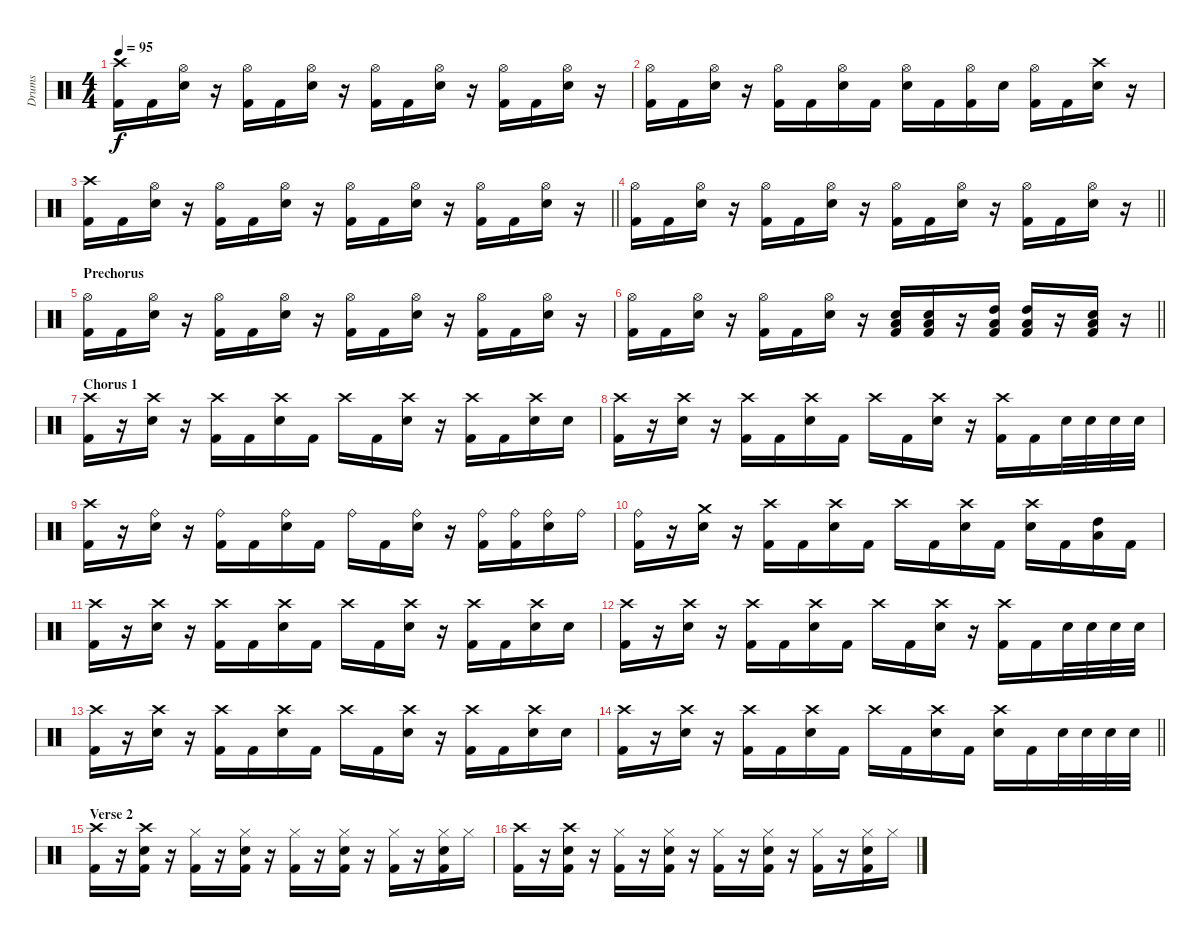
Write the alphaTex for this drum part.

\track ("Drums" "Drums") {instrument percussion}
\staff {score}
\articulation defaults
\ts (4 4)
\tempo 95
\clef neutral
\ks c
("Crash high (hit)" "Kick (hit) 2").16{dy f} "Kick (hit) 2".16 ("Hi-Hat (open)" "Electric Snare (hit)").16 r.16 ("Hi-Hat (open)" "Kick (hit) 2").16 "Kick (hit) 2".16 ("Hi-Hat (open)" "Electric Snare (hit)").16 r.16 ("Hi-Hat (open)" "Kick (hit) 2").16 "Kick (hit) 2".16 ("Hi-Hat (open)" "Electric Snare (hit)").16 r.16 ("Hi-Hat (open)" "Kick (hit) 2").16 "Kick (hit) 2".16 ("Hi-Hat (open)" "Electric Snare (hit)").16 r.16 |
("Hi-Hat (open)" "Kick (hit) 2").16 "Kick (hit) 2".16 ("Hi-Hat (open)" "Electric Snare (hit)").16 r.16 ("Hi-Hat (open)" "Kick (hit) 2").16 "Kick (hit) 2".16 ("Hi-Hat (open)" "Electric Snare (hit)").16 "Kick (hit) 2".16 ("Hi-Hat (open)" "Electric Snare (hit)").16 "Kick (hit) 2".16 ("Hi-Hat (open)" "Kick (hit) 2").16 "Electric Snare (hit)".16 ("Hi-Hat (open)" "Kick (hit) 2").16 "Kick (hit) 2".16 ("Crash high (hit)" "Electric Snare (hit)").16 r.16 |
\barLineRight lightlight
("Crash high (hit)" "Kick (hit) 2").16 "Kick (hit) 2".16 ("Hi-Hat (open)" "Electric Snare (hit)").16 r.16 ("Hi-Hat (open)" "Kick (hit) 2").16 "Kick (hit) 2".16 ("Hi-Hat (open)" "Electric Snare (hit)").16 r.16 ("Hi-Hat (open)" "Kick (hit) 2").16 "Kick (hit) 2".16 ("Hi-Hat (open)" "Electric Snare (hit)").16 r.16 ("Hi-Hat (open)" "Kick (hit) 2").16 "Kick (hit) 2".16 ("Hi-Hat (open)" "Electric Snare (hit)").16 r.16 |
\barLineRight lightlight
("Hi-Hat (open)" "Kick (hit) 2").16 "Kick (hit) 2".16 ("Hi-Hat (open)" "Electric Snare (hit)").16 r.16 ("Hi-Hat (open)" "Kick (hit) 2").16 "Kick (hit) 2".16 ("Hi-Hat (open)" "Electric Snare (hit)").16 r.16 ("Hi-Hat (open)" "Kick (hit) 2").16 "Kick (hit) 2".16 ("Hi-Hat (open)" "Electric Snare (hit)").16 r.16 ("Hi-Hat (open)" "Kick (hit) 2").16 "Kick (hit) 2".16 ("Hi-Hat (open)" "Electric Snare (hit)").16 r.16 |
\section ("" "Prechorus")
("Hi-Hat (open)" "Kick (hit) 2").16 "Kick (hit) 2".16 ("Hi-Hat (open)" "Electric Snare (hit)").16 r.16 ("Hi-Hat (open)" "Kick (hit) 2").16 "Kick (hit) 2".16 ("Hi-Hat (open)" "Electric Snare (hit)").16 r.16 ("Hi-Hat (open)" "Kick (hit) 2").16 "Kick (hit) 2".16 ("Hi-Hat (open)" "Electric Snare (hit)").16 r.16 ("Hi-Hat (open)" "Kick (hit) 2").16 "Kick (hit) 2".16 ("Hi-Hat (open)" "Electric Snare (hit)").16 r.16 |
\barLineRight lightlight
("Hi-Hat (open)" "Kick (hit) 2").16 "Kick (hit) 2".16 ("Hi-Hat (open)" "Electric Snare (hit)").16 r.16 ("Hi-Hat (open)" "Kick (hit) 2").16 "Kick (hit) 2".16 ("Hi-Hat (open)" "Electric Snare (hit)").16 r.16 ("Electric Snare (hit)" "Low Tom (hit)" "Kick (hit) 2").16 ("Electric Snare (hit)" "Low Tom (hit)" "Kick (hit) 2").16 r.16 ("High Tom (hit)" "Low Tom (hit)" "Kick (hit) 2").16 ("High Tom (hit)" "Low Tom (hit)" "Kick (hit) 2").16 r.16 ("Electric Snare (hit)" "Low Tom (hit)" "Kick (hit) 2").16 r.16 |
\section ("" "Chorus 1")
("Crash high (hit)" "Kick (hit) 2").16 r.16 ("Crash high (hit)" "Electric Snare (hit)").16 r.16 ("Crash high (hit)" "Kick (hit) 2").16 "Kick (hit) 2".16 ("Crash high (hit)" "Electric Snare (hit)").16 "Kick (hit) 2".16 "Crash high (hit)".16 "Kick (hit) 2".16 ("Crash high (hit)" "Electric Snare (hit)").16 r.16 ("Crash high (hit)" "Kick (hit) 2").16 "Kick (hit) 2".16 ("Crash high (hit)" "Electric Snare (hit)").16 "Electric Snare (hit)".16 |
("Crash high (hit)" "Kick (hit) 2").16 r.16 ("Crash high (hit)" "Electric Snare (hit)").16 r.16 ("Crash high (hit)" "Kick (hit) 2").16 "Kick (hit) 2".16 ("Crash high (hit)" "Electric Snare (hit)").16 "Kick (hit) 2".16 "Crash high (hit)".16 "Kick (hit) 2".16 ("Crash high (hit)" "Electric Snare (hit)").16 r.16 ("Crash high (hit)" "Kick (hit) 2").16 "Kick (hit) 2".16 "Electric Snare (hit)".32 "Electric Snare (hit)".32 "Electric Snare (hit)".32 "Electric Snare (hit)".32 |
("Crash high (hit)" "Kick (hit) 2").16 r.16 ("Ride (bell)" "Electric Snare (hit)").16 r.16 ("Ride (bell)" "Kick (hit) 2").16 "Kick (hit) 2".16 ("Ride (bell)" "Electric Snare (hit)").16 "Kick (hit) 2".16 "Ride (bell)".16 "Kick (hit) 2".16 ("Ride (bell)" "Electric Snare (hit)").16 r.16 ("Ride (bell)" "Kick (hit) 2").16 ("Ride (bell)" "Kick (hit) 2").16 ("Ride (bell)" "Electric Snare (hit)").16 "Ride (bell)".16 |
("Ride (bell)" "Kick (hit) 2").16 r.16 ("Crash medium (hit)" "Electric Snare (hit)").16 r.16 ("Crash high (hit)" "Kick (hit) 2").16 "Kick (hit) 2".16 ("Crash high (hit)" "Electric Snare (hit)").16 "Kick (hit) 2".16 "Crash high (hit)".16 "Kick (hit) 2".16 ("Crash high (hit)" "Electric Snare (hit)").16 "Kick (hit) 2".16 ("Crash high (hit)" "Electric Snare (hit)").16 "Kick (hit) 2".16 ("Low Tom (hit)" "High Tom (hit)").16 "Kick (hit) 2".16 |
("Crash high (hit)" "Kick (hit) 2").16 r.16 ("Crash high (hit)" "Electric Snare (hit)").16 r.16 ("Crash high (hit)" "Kick (hit) 2").16 "Kick (hit) 2".16 ("Crash high (hit)" "Electric Snare (hit)").16 "Kick (hit) 2".16 "Crash high (hit)".16 "Kick (hit) 2".16 ("Crash high (hit)" "Electric Snare (hit)").16 r.16 ("Crash high (hit)" "Kick (hit) 2").16 "Kick (hit) 2".16 ("Crash high (hit)" "Electric Snare (hit)").16 "Electric Snare (hit)".16 |
("Crash high (hit)" "Kick (hit) 2").16 r.16 ("Crash high (hit)" "Electric Snare (hit)").16 r.16 ("Crash high (hit)" "Kick (hit) 2").16 "Kick (hit) 2".16 ("Crash high (hit)" "Electric Snare (hit)").16 "Kick (hit) 2".16 "Crash high (hit)".16 "Kick (hit) 2".16 ("Crash high (hit)" "Electric Snare (hit)").16 r.16 ("Crash high (hit)" "Kick (hit) 2").16 "Kick (hit) 2".16 "Electric Snare (hit)".32 "Electric Snare (hit)".32 "Electric Snare (hit)".32 "Electric Snare (hit)".32 |
("Crash high (hit)" "Kick (hit) 2").16 r.16 ("Crash high (hit)" "Electric Snare (hit)").16 r.16 ("Crash high (hit)" "Kick (hit) 2").16 "Kick (hit) 2".16 ("Crash high (hit)" "Electric Snare (hit)").16 "Kick (hit) 2".16 "Crash high (hit)".16 "Kick (hit) 2".16 ("Crash high (hit)" "Electric Snare (hit)").16 r.16 ("Crash high (hit)" "Kick (hit) 2").16 "Kick (hit) 2".16 ("Crash high (hit)" "Electric Snare (hit)").16 "Electric Snare (hit)".16 |
\barLineRight lightlight
("Crash high (hit)" "Kick (hit) 2").16 r.16 ("Crash high (hit)" "Electric Snare (hit)").16 r.16 ("Crash high (hit)" "Kick (hit) 2").16 "Kick (hit) 2".16 ("Crash high (hit)" "Electric Snare (hit)").16 "Kick (hit) 2".16 "Crash high (hit)".16 "Kick (hit) 2".16 ("Crash high (hit)" "Electric Snare (hit)").16 "Kick (hit) 2".16 ("Crash high (hit)" "Electric Snare (hit)").16 "Kick (hit) 2".16 "Electric Snare (hit)".32 "Electric Snare (hit)".32 "Electric Snare (hit)".32 "Electric Snare (hit)".32 |
\section ("" "Verse 2")
("Crash high (hit)" "Kick (hit) 2").16 r.16 ("Crash high (hit)" "Electric Snare (hit)" "Kick (hit) 2").16 r.16 ("Hi-Hat (closed)" "Kick (hit) 2").16 r.16 ("Hi-Hat (closed)" "Electric Snare (hit)" "Kick (hit) 2").16 r.16 ("Hi-Hat (closed)" "Kick (hit) 2").16 r.16 ("Hi-Hat (closed)" "Electric Snare (hit)" "Kick (hit) 2").16 r.16 ("Hi-Hat (closed)" "Kick (hit) 2").16 r.16 ("Hi-Hat (closed)" "Electric Snare (hit)" "Kick (hit) 2").16 "Hi-Hat (closed)".16 |
("Crash high (hit)" "Kick (hit) 2").16 r.16 ("Crash high (hit)" "Electric Snare (hit)" "Kick (hit) 2").16 r.16 ("Hi-Hat (closed)" "Kick (hit) 2").16 r.16 ("Hi-Hat (closed)" "Electric Snare (hit)" "Kick (hit) 2").16 r.16 ("Hi-Hat (closed)" "Kick (hit) 2").16 r.16 ("Hi-Hat (closed)" "Electric Snare (hit)" "Kick (hit) 2").16 r.16 ("Hi-Hat (closed)" "Kick (hit) 2").16 r.16 ("Hi-Hat (closed)" "Electric Snare (hit)" "Kick (hit) 2").16 "Hi-Hat (closed)".16
